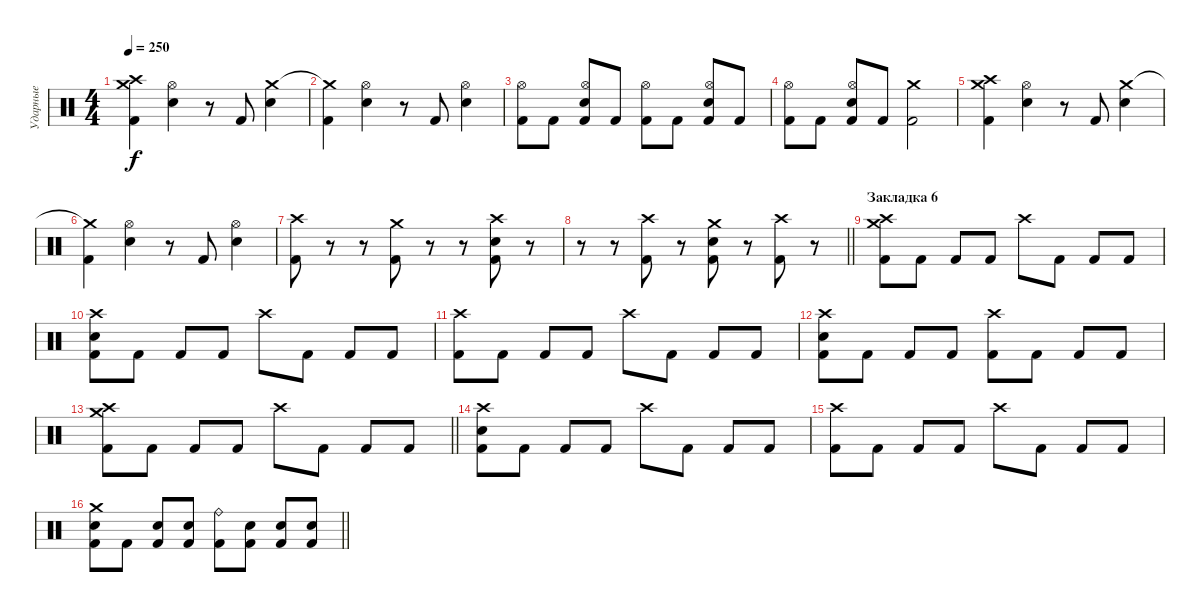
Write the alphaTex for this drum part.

\track ("Ударные" "Ударные") {instrument percussion}
\staff {score}
\articulation defaults
\ts (4 4)
\tempo 250
\clef neutral
\ks c
("Crash medium (hit)" "Crash high (hit)" "Kick (hit) 2").4{dy f} ("Hi-Hat (open)" "Electric Snare (hit)").4 r.8 "Kick (hit) 2".8 ("Crash medium (hit)" "Electric Snare (hit)").4 |
("Crash medium (hit)"{t} "Kick (hit) 2").4 ("Hi-Hat (open)" "Electric Snare (hit)").4 r.8 "Kick (hit) 2".8 ("Hi-Hat (open)" "Electric Snare (hit)").4 |
("Hi-Hat (open)" "Kick (hit) 2").8 "Kick (hit) 2".8 ("Hi-Hat (open)" "Electric Snare (hit)" "Kick (hit) 2").8 "Kick (hit) 2".8 ("Hi-Hat (open)" "Kick (hit) 2").8 "Kick (hit) 2".8 ("Hi-Hat (open)" "Electric Snare (hit)" "Kick (hit) 2").8 "Kick (hit) 2".8 |
("Hi-Hat (open)" "Kick (hit) 2").8 "Kick (hit) 2".8 ("Hi-Hat (open)" "Electric Snare (hit)" "Kick (hit) 2").8 "Kick (hit) 2".8 ("Crash medium (hit)" "Kick (hit) 2").2 |
("Crash medium (hit)" "Crash high (hit)" "Kick (hit) 2").4 ("Hi-Hat (open)" "Electric Snare (hit)").4 r.8 "Kick (hit) 2".8 ("Crash medium (hit)" "Electric Snare (hit)").4 |
("Crash medium (hit)"{t} "Kick (hit) 2").4 ("Hi-Hat (open)" "Electric Snare (hit)").4 r.8 "Kick (hit) 2".8 ("Hi-Hat (open)" "Electric Snare (hit)").4 |
("Crash high (hit)" "Kick (hit) 2").8 r.8 r.8 ("Crash medium (hit)" "Kick (hit) 2").8 r.8 r.8 ("Crash high (hit)" "Electric Snare (hit)" "Kick (hit) 2").8 r.8 |
\barLineRight lightlight
r.8 r.8 ("Crash high (hit)" "Kick (hit) 2").8 r.8 ("Crash medium (hit)" "Electric Snare (hit)" "Kick (hit) 2").8 r.8 ("Crash high (hit)" "Kick (hit) 2").8 r.8 |
\section ("" "Закладка 6")
("Crash medium (hit)" "Crash high (hit)" "Kick (hit) 2").8 "Kick (hit) 2".8 "Kick (hit) 2".8 "Kick (hit) 2".8 "Crash high (hit)".8 "Kick (hit) 2".8 "Kick (hit) 2".8 "Kick (hit) 2".8 |
("Crash high (hit)" "Electric Snare (hit)" "Kick (hit) 2").8 "Kick (hit) 2".8 "Kick (hit) 2".8 "Kick (hit) 2".8 "Crash high (hit)".8 "Kick (hit) 2".8 "Kick (hit) 2".8 "Kick (hit) 2".8 |
("Crash high (hit)" "Kick (hit) 2").8 "Kick (hit) 2".8 "Kick (hit) 2".8 "Kick (hit) 2".8 "Crash high (hit)".8 "Kick (hit) 2".8 "Kick (hit) 2".8 "Kick (hit) 2".8 |
("Crash high (hit)" "Electric Snare (hit)" "Kick (hit) 2").8 "Kick (hit) 2".8 "Kick (hit) 2".8 "Kick (hit) 2".8 ("Crash high (hit)" "Kick (hit) 2").8 "Kick (hit) 2".8 "Kick (hit) 2".8 "Kick (hit) 2".8 |
\barLineRight lightlight
("Crash medium (hit)" "Crash high (hit)" "Kick (hit) 2").8 "Kick (hit) 2".8 "Kick (hit) 2".8 "Kick (hit) 2".8 "Crash high (hit)".8 "Kick (hit) 2".8 "Kick (hit) 2".8 "Kick (hit) 2".8 |
("Crash high (hit)" "Electric Snare (hit)" "Kick (hit) 2").8 "Kick (hit) 2".8 "Kick (hit) 2".8 "Kick (hit) 2".8 "Crash high (hit)".8 "Kick (hit) 2".8 "Kick (hit) 2".8 "Kick (hit) 2".8 |
("Crash high (hit)" "Kick (hit) 2").8 "Kick (hit) 2".8 "Kick (hit) 2".8 "Kick (hit) 2".8 "Crash high (hit)".8 "Kick (hit) 2".8 "Kick (hit) 2".8 "Kick (hit) 2".8 |
\barLineRight lightlight
("Crash medium (hit)" "Electric Snare (hit)" "Kick (hit) 2").8 "Kick (hit) 2".8 ("Electric Snare (hit)" "Kick (hit) 2").8 ("Electric Snare (hit)" "Kick (hit) 2").8 ("Ride (bell)" "Kick (hit) 2").8 ("Electric Snare (hit)" "Kick (hit) 2").8 ("Electric Snare (hit)" "Kick (hit) 2").8 ("Electric Snare (hit)" "Kick (hit) 2").8
